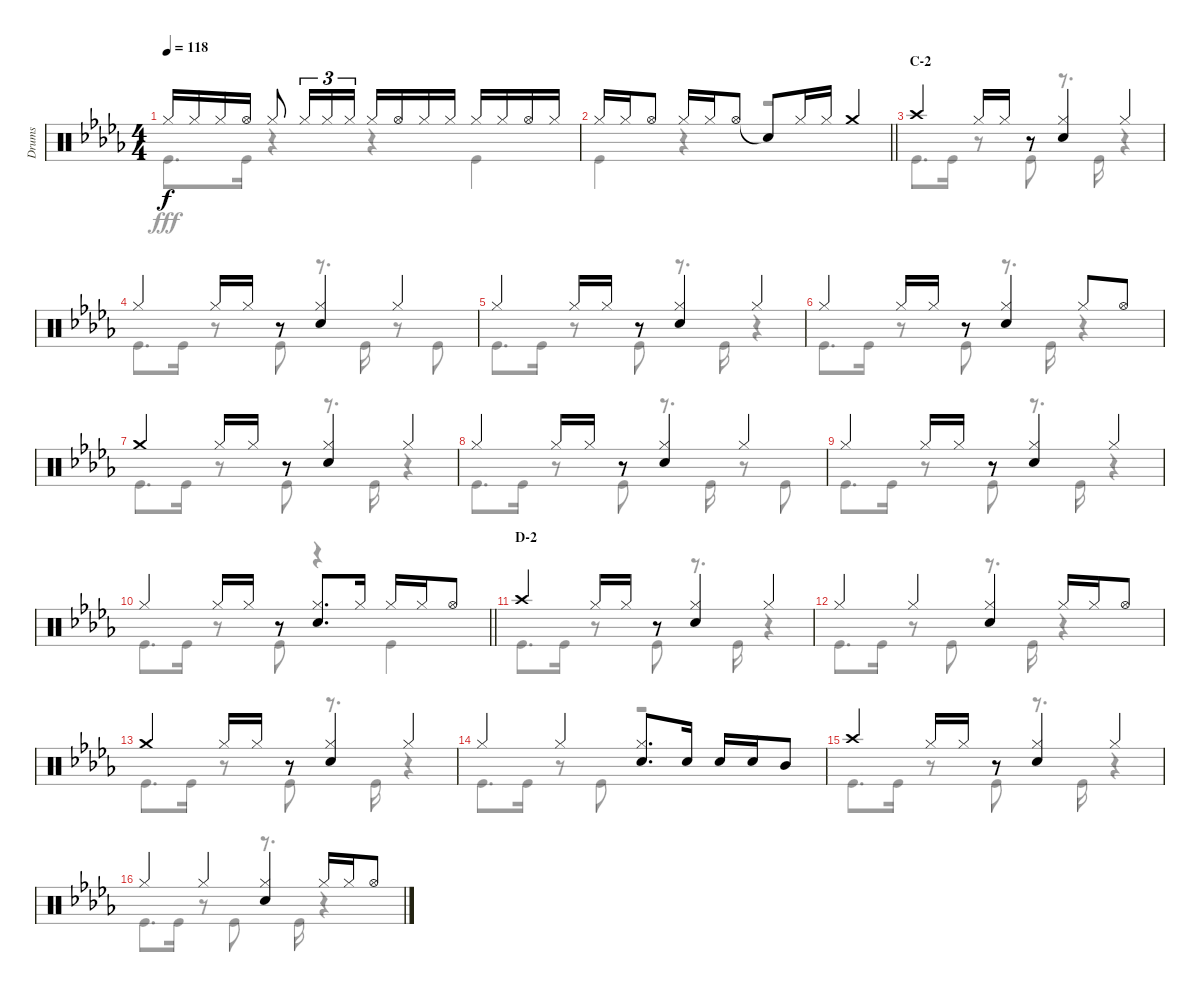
\track ("Drums" "Drums") {instrument percussion}
\staff {score}
\articulation defaults
\voice
\ts (4 4)
\tempo 118
\clef neutral
\ks db "Hi-Hat (closed)".16{dy f} "Hi-Hat (closed)".16 "Hi-Hat (closed)".16 "Hi-Hat (open)".16 "Hi-Hat (closed)".8 "Hi-Hat (closed)".16{tu (3 2)} "Hi-Hat (closed)".16{tu (3 2)} "Hi-Hat (closed)".16{tu (3 2)} "Hi-Hat (closed)".16 "Hi-Hat (open)".16 "Hi-Hat (closed)".16 "Hi-Hat (closed)".16 "Hi-Hat (closed)".16 "Hi-Hat (closed)".16 "Hi-Hat (open)".16 "Hi-Hat (closed)".16
|
\barLineRight lightlight "Hi-Hat (closed)".16 "Hi-Hat (closed)".16 "Hi-Hat (open)".8 "Hi-Hat (closed)".16 "Hi-Hat (closed)".16 "Hi-Hat (open)".8 "Snare (hit)"{t}.8 "Hi-Hat (closed)".16 "Hi-Hat (closed)".16 "Crash medium (hit)".4
|
\section ("" "C-2")
"Crash high (hit)".4 "Hi-Hat (closed)".16 "Hi-Hat (closed)".16 r.8 ("Hi-Hat (closed)" "Snare (hit) 2").4 "Hi-Hat (closed)".4 |
"Hi-Hat (closed)".4 "Hi-Hat (closed)".16 "Hi-Hat (closed)".16 r.8 ("Hi-Hat (closed)" "Snare (hit) 2").4 "Hi-Hat (closed)".4 |
"Hi-Hat (closed)".4 "Hi-Hat (closed)".16 "Hi-Hat (closed)".16 r.8 ("Hi-Hat (closed)" "Snare (hit) 2").4 "Hi-Hat (closed)".4 |
"Hi-Hat (closed)".4 "Hi-Hat (closed)".16 "Hi-Hat (closed)".16 r.8 ("Hi-Hat (closed)" "Snare (hit) 2").4 "Hi-Hat (closed)".8 "Hi-Hat (open)".8 |
"Crash medium (hit)".4 "Hi-Hat (closed)".16 "Hi-Hat (closed)".16 r.8 ("Hi-Hat (closed)" "Snare (hit) 2").4 "Hi-Hat (closed)".4 |
"Hi-Hat (closed)".4 "Hi-Hat (closed)".16 "Hi-Hat (closed)".16 r.8 ("Hi-Hat (closed)" "Snare (hit) 2").4 "Hi-Hat (closed)".4 |
"Hi-Hat (closed)".4 "Hi-Hat (closed)".16 "Hi-Hat (closed)".16 r.8 ("Hi-Hat (closed)" "Snare (hit) 2").4 "Hi-Hat (closed)".4 |
\barLineRight lightlight "Hi-Hat (closed)".4 "Hi-Hat (closed)".16 "Hi-Hat (closed)".16
r.8 ("Hi-Hat (closed)" "Snare (hit) 2").8{d} "Hi-Hat (closed)".16 "Hi-Hat (closed)".16 "Hi-Hat (closed)".16 "Hi-Hat (open)".8 |
\section ("" "D-2")
"Crash high (hit)".4 "Hi-Hat (closed)".16 "Hi-Hat (closed)".16 r.8 ("Hi-Hat (closed)" "Snare (hit) 2").4 "Hi-Hat (closed)".4 |
"Hi-Hat (closed)".4 "Hi-Hat (closed)".4 ("Hi-Hat (closed)" "Snare (hit) 2").4 "Hi-Hat (closed)".16 "Hi-Hat (closed)".16 "Hi-Hat (open)".8 |
"Crash medium (hit)".4 "Hi-Hat (closed)".16 "Hi-Hat (closed)".16 r.8 ("Hi-Hat (closed)" "Snare (hit) 2").4 "Hi-Hat (closed)".4 |
"Hi-Hat (closed)".4 "Hi-Hat (closed)".4 ("Hi-Hat (closed)" "Snare (hit) 2").8{d} "Snare (hit) 2".16 "Snare (hit) 2".16 "Snare (hit) 2".16 "Mid Tom (hit)".8 |
"Crash high (hit)".4 "Hi-Hat (closed)".16 "Hi-Hat (closed)".16 r.8 ("Hi-Hat (closed)" "Snare (hit) 2").4 "Hi-Hat (closed)".4 |
"Hi-Hat (closed)".4 "Hi-Hat (closed)".4 ("Hi-Hat (closed)" "Snare (hit) 2").4 "Hi-Hat (closed)".16 "Hi-Hat (closed)".16 "Hi-Hat (open)".8
\voice
\clef neutral
\ottava regular
\simile none
\ks db "Kick (hit)".8{d dy fff} "Kick (hit)".16
r.4 r.4 "Kick (hit)".4 |
\barLineRight lightlight "Kick (hit)".4
r.4 r.2 |
"Kick (hit)".8{d} "Kick (hit)".16 r.8 "Kick (hit)".8 r.8{d} "Kick (hit)".16 r.4 |
"Kick (hit)".8{d} "Kick (hit)".16 r.8 "Kick (hit)".8 r.8{d} "Kick (hit)".16 r.8 "Kick (hit)".8 |
"Kick (hit)".8{d} "Kick (hit)".16 r.8 "Kick (hit)".8 r.8{d} "Kick (hit)".16 r.4 |
"Kick (hit)".8{d} "Kick (hit)".16 r.8 "Kick (hit)".8 r.8{d} "Kick (hit)".16 r.4 |
"Kick (hit)".8{d} "Kick (hit)".16 r.8 "Kick (hit)".8 r.8{d} "Kick (hit)".16 r.4 |
"Kick (hit)".8{d} "Kick (hit)".16 r.8 "Kick (hit)".8 r.8{d} "Kick (hit)".16 r.8 "Kick (hit)".8 |
"Kick (hit)".8{d} "Kick (hit)".16 r.8 "Kick (hit)".8 r.8{d} "Kick (hit)".16 r.4 |
\barLineRight lightlight "Kick (hit)".8{d} "Kick (hit)".16
r.8 "Kick (hit)".8 r.4 "Kick (hit)".4 |
"Kick (hit)".8{d} "Kick (hit)".16 r.8 "Kick (hit)".8 r.8{d} "Kick (hit)".16 r.4 |
"Kick (hit)".8{d} "Kick (hit)".16 r.8 "Kick (hit)".8 r.8{d} "Kick (hit)".16 r.4 |
"Kick (hit)".8{d} "Kick (hit)".16 r.8 "Kick (hit)".8 r.8{d} "Kick (hit)".16 r.4 |
"Kick (hit)".8{d} "Kick (hit)".16 r.8 "Kick (hit)".8 r.2 |
"Kick (hit)".8{d} "Kick (hit)".16 r.8 "Kick (hit)".8 r.8{d} "Kick (hit)".16 r.4 |
"Kick (hit)".8{d} "Kick (hit)".16 r.8 "Kick (hit)".8 r.8{d} "Kick (hit)".16 r.4
